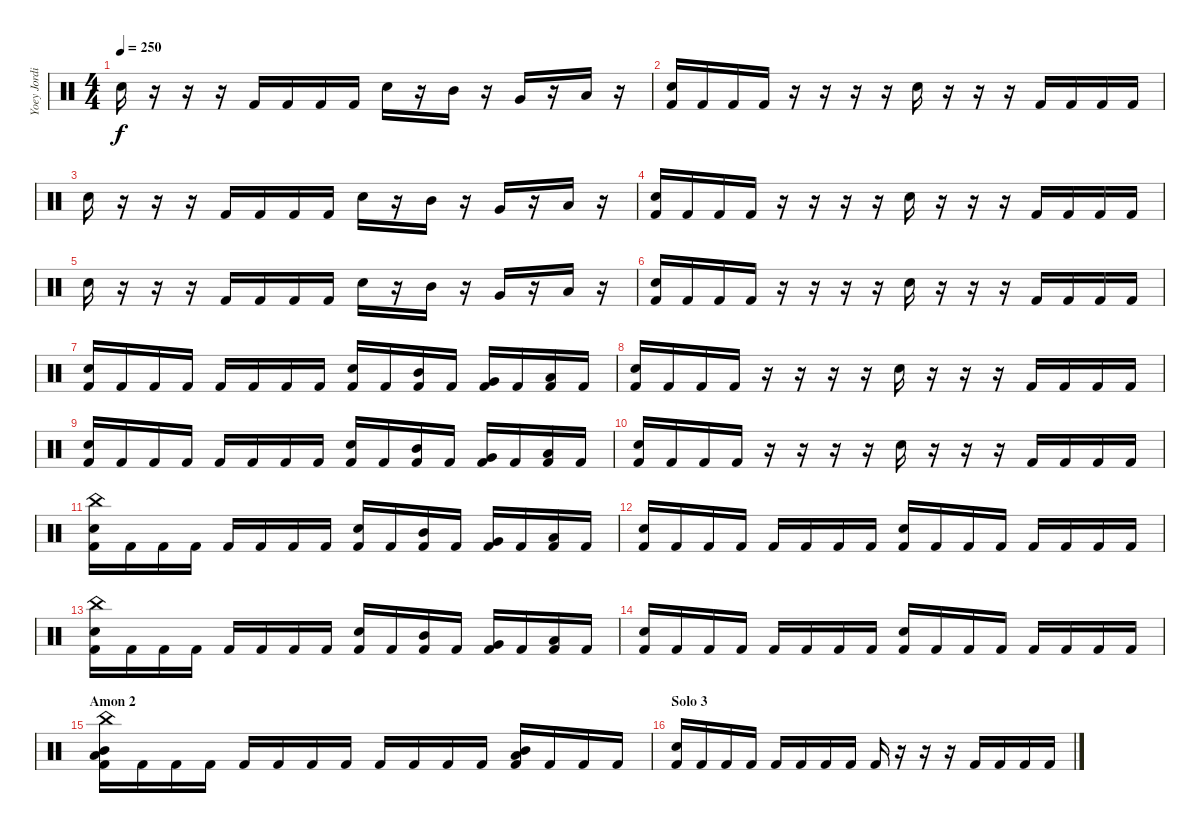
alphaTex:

\track ("Yoey Jordison" "Yoey Jordi") {instrument percussion}
\staff {score}
\articulation defaults
\ts (4 4)
\tempo 250
\clef neutral
\ks c "Snare (hit) 2".16{dy f}
r.16 r.16 r.16 "Kick (hit) 2".16 "Kick (hit) 2".16 "Kick (hit) 2".16 "Kick (hit) 2".16 "Electric Snare (hit)".16 r.16 "Mid Tom (hit)".16 r.16 "Very Low Tom (hit)".16 r.16 "Low Floor Tom (hit)".16 r.16 |
("Kick (hit) 2" "Snare (hit) 2").16 "Kick (hit) 2".16 "Kick (hit) 2".16 "Kick (hit) 2".16 r.16 r.16 r.16 r.16 "Electric Snare (hit)".16 r.16 r.16 r.16 "Kick (hit) 2".16 "Kick (hit) 2".16 "Kick (hit) 2".16 "Kick (hit) 2".16 |
"Snare (hit) 2".16 r.16 r.16 r.16 "Kick (hit) 2".16 "Kick (hit) 2".16 "Kick (hit) 2".16 "Kick (hit) 2".16 "Electric Snare (hit)".16 r.16 "Mid Tom (hit)".16 r.16 "Very Low Tom (hit)".16 r.16 "Low Floor Tom (hit)".16 r.16 |
("Kick (hit) 2" "Snare (hit) 2").16 "Kick (hit) 2".16 "Kick (hit) 2".16 "Kick (hit) 2".16 r.16 r.16 r.16 r.16 "Electric Snare (hit)".16 r.16 r.16 r.16 "Kick (hit) 2".16 "Kick (hit) 2".16 "Kick (hit) 2".16 "Kick (hit) 2".16 |
"Snare (hit) 2".16 r.16 r.16 r.16 "Kick (hit) 2".16 "Kick (hit) 2".16 "Kick (hit) 2".16 "Kick (hit) 2".16 "Electric Snare (hit)".16 r.16 "Mid Tom (hit)".16 r.16 "Very Low Tom (hit)".16 r.16 "Low Floor Tom (hit)".16 r.16 |
("Kick (hit) 2" "Snare (hit) 2").16 "Kick (hit) 2".16 "Kick (hit) 2".16 "Kick (hit) 2".16 r.16 r.16 r.16 r.16 "Electric Snare (hit)".16 r.16 r.16 r.16 "Kick (hit) 2".16 "Kick (hit) 2".16 "Kick (hit) 2".16 "Kick (hit) 2".16 |
("Kick (hit) 2" "Snare (hit) 2").16 "Kick (hit) 2".16 "Kick (hit) 2".16 "Kick (hit) 2".16 "Kick (hit) 2".16 "Kick (hit) 2".16 "Kick (hit) 2".16 "Kick (hit) 2".16 ("Kick (hit) 2" "Electric Snare (hit)").16 "Kick (hit) 2".16 ("Mid Tom (hit)" "Kick (hit) 2").16 "Kick (hit) 2".16 ("Very Low Tom (hit)" "Kick (hit) 2").16 "Kick (hit) 2".16 ("Low Floor Tom (hit)" "Kick (hit) 2").16 "Kick (hit) 2".16 |
("Kick (hit) 2" "Snare (hit) 2").16 "Kick (hit) 2".16 "Kick (hit) 2".16 "Kick (hit) 2".16 r.16 r.16 r.16 r.16 "Electric Snare (hit)".16 r.16 r.16 r.16 "Kick (hit) 2".16 "Kick (hit) 2".16 "Kick (hit) 2".16 "Kick (hit) 2".16 |
("Kick (hit) 2" "Snare (hit) 2").16 "Kick (hit) 2".16 "Kick (hit) 2".16 "Kick (hit) 2".16 "Kick (hit) 2".16 "Kick (hit) 2".16 "Kick (hit) 2".16 "Kick (hit) 2".16 ("Kick (hit) 2" "Electric Snare (hit)").16 "Kick (hit) 2".16 ("Mid Tom (hit)" "Kick (hit) 2").16 "Kick (hit) 2".16 ("Very Low Tom (hit)" "Kick (hit) 2").16 "Kick (hit) 2".16 ("Low Floor Tom (hit)" "Kick (hit) 2").16 "Kick (hit) 2".16 |
("Kick (hit) 2" "Snare (hit) 2").16 "Kick (hit) 2".16 "Kick (hit) 2".16 "Kick (hit) 2".16 r.16 r.16 r.16 r.16 "Electric Snare (hit)".16 r.16 r.16 r.16 "Kick (hit) 2".16 "Kick (hit) 2".16 "Kick (hit) 2".16 "Kick (hit) 2".16 |
("China (hit)" "Kick (hit) 2" "Snare (hit) 2").16 "Kick (hit) 2".16 "Kick (hit) 2".16 "Kick (hit) 2".16 "Kick (hit) 2".16 "Kick (hit) 2".16 "Kick (hit) 2".16 "Kick (hit) 2".16 ("Kick (hit) 2" "Electric Snare (hit)").16 "Kick (hit) 2".16 ("Mid Tom (hit)" "Kick (hit) 2").16 "Kick (hit) 2".16 ("Very Low Tom (hit)" "Kick (hit) 2").16 "Kick (hit) 2".16 ("Low Floor Tom (hit)" "Kick (hit) 2").16 "Kick (hit) 2".16 |
("Kick (hit) 2" "Snare (hit) 2").16 "Kick (hit) 2".16 "Kick (hit) 2".16 "Kick (hit) 2".16 "Kick (hit) 2".16 "Kick (hit) 2".16 "Kick (hit) 2".16 "Kick (hit) 2".16 ("Kick (hit) 2" "Electric Snare (hit)").16 "Kick (hit) 2".16 "Kick (hit) 2".16 "Kick (hit) 2".16 "Kick (hit) 2".16 "Kick (hit) 2".16 "Kick (hit) 2".16 "Kick (hit) 2".16 |
("China (hit)" "Kick (hit) 2" "Snare (hit) 2").16 "Kick (hit) 2".16 "Kick (hit) 2".16 "Kick (hit) 2".16 "Kick (hit) 2".16 "Kick (hit) 2".16 "Kick (hit) 2".16 "Kick (hit) 2".16 ("Kick (hit) 2" "Electric Snare (hit)").16 "Kick (hit) 2".16 ("Mid Tom (hit)" "Kick (hit) 2").16 "Kick (hit) 2".16 ("Very Low Tom (hit)" "Kick (hit) 2").16 "Kick (hit) 2".16 ("Low Floor Tom (hit)" "Kick (hit) 2").16 "Kick (hit) 2".16 |
("Kick (hit) 2" "Snare (hit) 2").16 "Kick (hit) 2".16 "Kick (hit) 2".16 "Kick (hit) 2".16 "Kick (hit) 2".16 "Kick (hit) 2".16 "Kick (hit) 2".16 "Kick (hit) 2".16 ("Kick (hit) 2" "Electric Snare (hit)").16 "Kick (hit) 2".16 "Kick (hit) 2".16 "Kick (hit) 2".16 "Kick (hit) 2".16 "Kick (hit) 2".16 "Kick (hit) 2".16 "Kick (hit) 2".16 |
\section ("" "Amon 2")
("China (hit)" "Mid Tom (hit)" "Kick (hit) 2" "Low Floor Tom (hit)").16 "Kick (hit) 2".16 "Kick (hit) 2".16 "Kick (hit) 2".16 "Kick (hit) 2".16 "Kick (hit) 2".16 "Kick (hit) 2".16 "Kick (hit) 2".16 "Kick (hit) 2".16 "Kick (hit) 2".16 "Kick (hit) 2".16 "Kick (hit) 2".16 ("Mid Tom (hit)" "Kick (hit) 2" "Low Floor Tom (hit)").16 "Kick (hit) 2".16 "Kick (hit) 2".16 "Kick (hit) 2".16 |
\section ("" "Solo 3")
("Kick (hit) 2" "Snare (hit) 2").16 "Kick (hit) 2".16 "Kick (hit) 2".16 "Kick (hit) 2".16 "Kick (hit) 2".16 "Kick (hit) 2".16 "Kick (hit) 2".16 "Kick (hit) 2".16 "Kick (hit) 2".16 r.16 r.16 r.16 "Kick (hit) 2".16 "Kick (hit) 2".16 "Kick (hit) 2".16 "Kick (hit) 2".16
